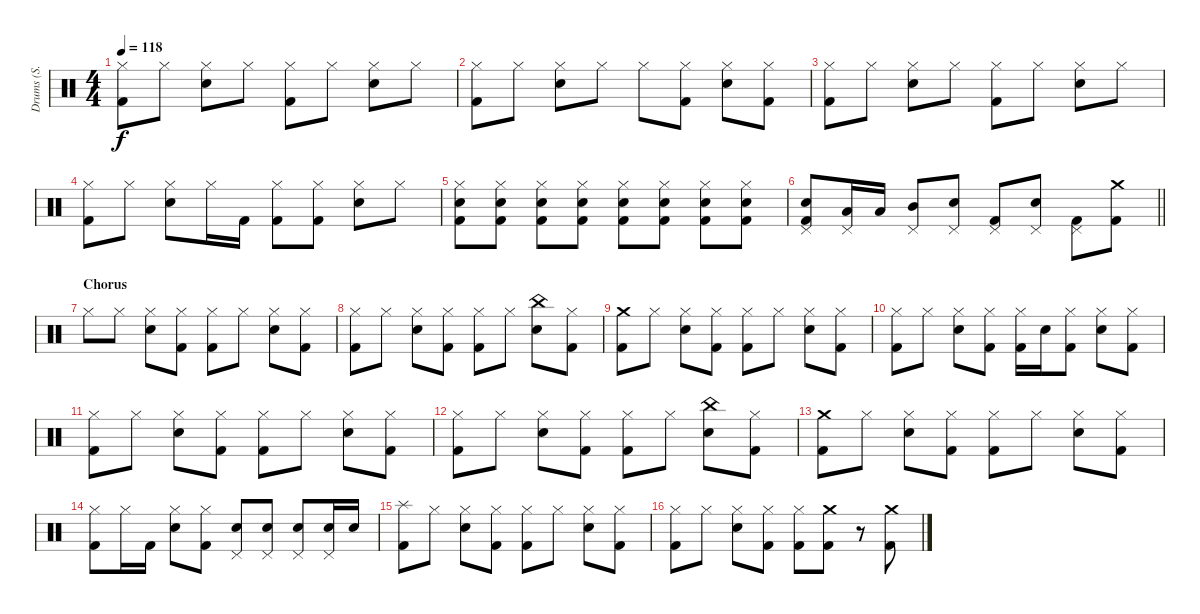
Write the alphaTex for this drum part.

\track ("Drums (S. Rockenfield)" "Drums (S. ") {instrument percussion}
\staff {score}
\articulation defaults
\ts (4 4)
\tempo 118
\clef neutral
\ks c
("Hi-Hat (closed)" "Kick (hit) 2").8{dy f} "Hi-Hat (closed)".8 ("Hi-Hat (closed)" "Snare (hit) 2").8 "Hi-Hat (closed)".8 ("Hi-Hat (closed)" "Kick (hit) 2").8 "Hi-Hat (closed)".8 ("Hi-Hat (closed)" "Snare (hit) 2").8 "Hi-Hat (closed)".8 |
("Hi-Hat (closed)" "Kick (hit) 2").8 "Hi-Hat (closed)".8 ("Hi-Hat (closed)" "Snare (hit) 2").8 "Hi-Hat (closed)".8 "Hi-Hat (closed)".8 ("Hi-Hat (closed)" "Kick (hit) 2").8 ("Hi-Hat (closed)" "Snare (hit) 2").8 ("Hi-Hat (closed)" "Kick (hit) 2").8 |
("Hi-Hat (closed)" "Kick (hit) 2").8 "Hi-Hat (closed)".8 ("Hi-Hat (closed)" "Snare (hit) 2").8 "Hi-Hat (closed)".8 ("Hi-Hat (closed)" "Kick (hit) 2").8 "Hi-Hat (closed)".8 ("Hi-Hat (closed)" "Snare (hit) 2").8 "Hi-Hat (closed)".8 |
("Hi-Hat (closed)" "Kick (hit) 2").8 "Hi-Hat (closed)".8 ("Hi-Hat (closed)" "Snare (hit) 2").8 "Hi-Hat (closed)".16 "Kick (hit) 2".16 ("Hi-Hat (closed)" "Kick (hit) 2").8 ("Hi-Hat (closed)" "Kick (hit) 2").8 ("Hi-Hat (closed)" "Snare (hit) 2").8 "Hi-Hat (closed)".8 |
("Hi-Hat (closed)" "Snare (hit) 2" "Kick (hit) 2").8 ("Hi-Hat (closed)" "Snare (hit) 2" "Kick (hit) 2").8 ("Hi-Hat (closed)" "Snare (hit) 2" "Kick (hit) 2").8 ("Hi-Hat (closed)" "Snare (hit) 2" "Kick (hit) 2").8 ("Hi-Hat (closed)" "Snare (hit) 2" "Kick (hit) 2").8 ("Hi-Hat (closed)" "Snare (hit) 2" "Kick (hit) 2").8 ("Hi-Hat (closed)" "Snare (hit) 2" "Kick (hit) 2").8 ("Hi-Hat (closed)" "Snare (hit) 2" "Kick (hit) 2").8 |
\barLineRight lightlight
("Pedal Hi-Hat (hit)" "Snare (hit) 2" "Kick (hit) 2").8 ("Pedal Hi-Hat (hit)" "Low Tom (hit)").16 "Low Tom (hit)".16 ("Pedal Hi-Hat (hit)" "Mid Tom (hit)").8 ("Pedal Hi-Hat (hit)" "Snare (hit) 2").8 ("Pedal Hi-Hat (hit)" "Kick (hit) 2").8 ("Pedal Hi-Hat (hit)" "Snare (hit) 2").8 ("Pedal Hi-Hat (hit)" "Kick (hit) 2").8 ("Crash medium (hit)" "Kick (hit) 2").8 |
\section ("" "Chorus")
"Hi-Hat (closed)".8 "Hi-Hat (closed)".8 ("Hi-Hat (closed)" "Snare (hit) 2").8 ("Hi-Hat (closed)" "Kick (hit) 2").8 ("Hi-Hat (closed)" "Kick (hit) 2").8 "Hi-Hat (closed)".8 ("Hi-Hat (closed)" "Snare (hit) 2").8 ("Hi-Hat (closed)" "Kick (hit) 2").8 |
("Hi-Hat (closed)" "Kick (hit) 2").8 "Hi-Hat (closed)".8 ("Hi-Hat (closed)" "Snare (hit) 2").8 ("Hi-Hat (closed)" "Kick (hit) 2").8 ("Hi-Hat (closed)" "Kick (hit) 2").8 "Hi-Hat (closed)".8 ("China (hit)" "Snare (hit) 2").8 ("Hi-Hat (closed)" "Kick (hit) 2").8 |
("Crash medium (hit)" "Kick (hit) 2").8 "Hi-Hat (closed)".8 ("Hi-Hat (closed)" "Snare (hit) 2").8 ("Hi-Hat (closed)" "Kick (hit) 2").8 ("Hi-Hat (closed)" "Kick (hit) 2").8 "Hi-Hat (closed)".8 ("Hi-Hat (closed)" "Snare (hit) 2").8 ("Hi-Hat (closed)" "Kick (hit) 2").8 |
("Hi-Hat (closed)" "Kick (hit) 2").8 "Hi-Hat (closed)".8 ("Hi-Hat (closed)" "Snare (hit) 2").8 ("Hi-Hat (closed)" "Kick (hit) 2").8 ("Hi-Hat (closed)" "Kick (hit) 2").16 "Snare (hit) 2".16 ("Hi-Hat (closed)" "Kick (hit) 2").8 ("Hi-Hat (closed)" "Snare (hit) 2").8 ("Hi-Hat (closed)" "Kick (hit) 2").8 |
("Hi-Hat (closed)" "Kick (hit) 2").8 "Hi-Hat (closed)".8 ("Hi-Hat (closed)" "Snare (hit) 2").8 ("Hi-Hat (closed)" "Kick (hit) 2").8 ("Hi-Hat (closed)" "Kick (hit) 2").8 "Hi-Hat (closed)".8 ("Hi-Hat (closed)" "Snare (hit) 2").8 ("Hi-Hat (closed)" "Kick (hit) 2").8 |
("Hi-Hat (closed)" "Kick (hit) 2").8 "Hi-Hat (closed)".8 ("Hi-Hat (closed)" "Snare (hit) 2").8 ("Hi-Hat (closed)" "Kick (hit) 2").8 ("Hi-Hat (closed)" "Kick (hit) 2").8 "Hi-Hat (closed)".8 ("China (hit)" "Snare (hit) 2").8 ("Hi-Hat (closed)" "Kick (hit) 2").8 |
("Crash medium (hit)" "Kick (hit) 2").8 "Hi-Hat (closed)".8 ("Hi-Hat (closed)" "Snare (hit) 2").8 ("Hi-Hat (closed)" "Kick (hit) 2").8 ("Hi-Hat (closed)" "Kick (hit) 2").8 "Hi-Hat (closed)".8 ("Hi-Hat (closed)" "Snare (hit) 2").8 ("Hi-Hat (closed)" "Kick (hit) 2").8 |
("Hi-Hat (closed)" "Kick (hit) 2").8 "Hi-Hat (closed)".16 "Kick (hit) 2".16 ("Hi-Hat (closed)" "Snare (hit) 2").8 ("Hi-Hat (closed)" "Kick (hit) 2").8 ("Pedal Hi-Hat (hit)" "Snare (hit) 2").8 ("Pedal Hi-Hat (hit)" "Snare (hit) 2").8 ("Pedal Hi-Hat (hit)" "Snare (hit) 2").8 ("Pedal Hi-Hat (hit)" "Snare (hit) 2").16 "Snare (hit) 2".16 |
("Splash (hit)" "Kick (hit) 2").8 "Hi-Hat (closed)".8 ("Hi-Hat (closed)" "Snare (hit) 2").8 ("Hi-Hat (closed)" "Kick (hit) 2").8 ("Hi-Hat (closed)" "Kick (hit) 2").8 "Hi-Hat (closed)".8 ("Hi-Hat (closed)" "Snare (hit) 2").8 ("Hi-Hat (closed)" "Kick (hit) 2").8 |
("Hi-Hat (closed)" "Kick (hit) 2").8 "Hi-Hat (closed)".8 ("Hi-Hat (closed)" "Snare (hit) 2").8 ("Hi-Hat (closed)" "Kick (hit) 2").8 ("Hi-Hat (closed)" "Kick (hit) 2").8 ("Crash medium (hit)" "Kick (hit) 2").8 r.8 ("Crash medium (hit)" "Kick (hit) 2").8
